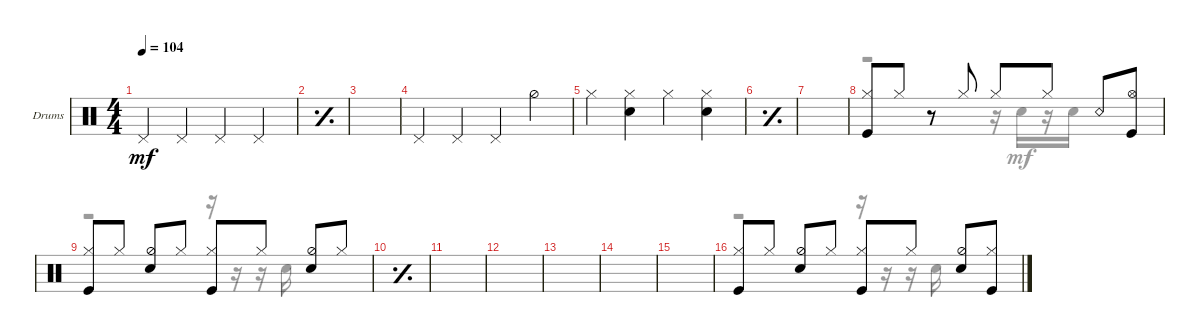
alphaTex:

\defaultSystemsLayout 4
\bracketExtendMode groupsimilarinstruments
\firstSystemTrackNameOrientation horizontal
\otherSystemsTrackNameOrientation horizontal
\track ("Алена" "Drums") {instrument percussion}
\staff {score}
\articulation defaults
\voice
\ts (4 4)
\tempo 104
\clef neutral
\ks c "Pedal Hi-Hat (hit)".4{dy mf} "Pedal Hi-Hat (hit)".4 "Pedal Hi-Hat (hit)".4 "Pedal Hi-Hat (hit)".4
|
\simile simple
|
|
\simile none "Pedal Hi-Hat (hit)".4 "Pedal Hi-Hat (hit)".4 "Pedal Hi-Hat (hit)".4 "Hi-Hat (half)".4
|
"Hi-Hat (closed)".4 ("Hi-Hat (closed)" "Snare (hit) 2").4 "Hi-Hat (closed)".4 ("Hi-Hat (closed)" "Snare (hit) 2").4 |
\simile simple
|
|
\simile none
("Hi-Hat (closed)" "Kick (hit)").8 "Hi-Hat (closed)".8 r.8 "Hi-Hat (closed)".8 "Hi-Hat (closed)".8 "Hi-Hat (closed)".8 "Snare (rim shot)".8 ("Hi-Hat (open)" "Kick (hit)").8 |
("Hi-Hat (closed)" "Kick (hit)").8 "Hi-Hat (closed)".8 ("Hi-Hat (half)" "Snare (hit) 2").8 "Hi-Hat (closed)".8 ("Hi-Hat (closed)" "Kick (hit)").8 "Hi-Hat (closed)".8 ("Hi-Hat (half)" "Snare (hit) 2").8 "Hi-Hat (closed)".8 |
\simile simple
|
|
|
|
|
|
\simile none
("Hi-Hat (closed)" "Kick (hit)").8 "Hi-Hat (closed)".8 ("Hi-Hat (half)" "Snare (hit) 2").8 "Hi-Hat (closed)".8 ("Hi-Hat (closed)" "Kick (hit)").8 "Hi-Hat (closed)".8 ("Hi-Hat (half)" "Snare (hit) 2").8 ("Hi-Hat (closed)" "Kick (hit)").8
\voice
\clef neutral
\ottava regular
\simile none
\ks c
|
\simile simple
|
|
\simile none
|
|
\simile simple
|
|
\simile none
r.2 r.16 "Snare (hit) 2".16 r.16 "Snare (hit) 2".16 |
r.2 r.16 r.16 r.16 "Snare (hit) 2".16 |
\simile simple
|
|
|
|
|
|
\simile none
r.2 r.16 r.16 r.16 "Snare (hit) 2".16
